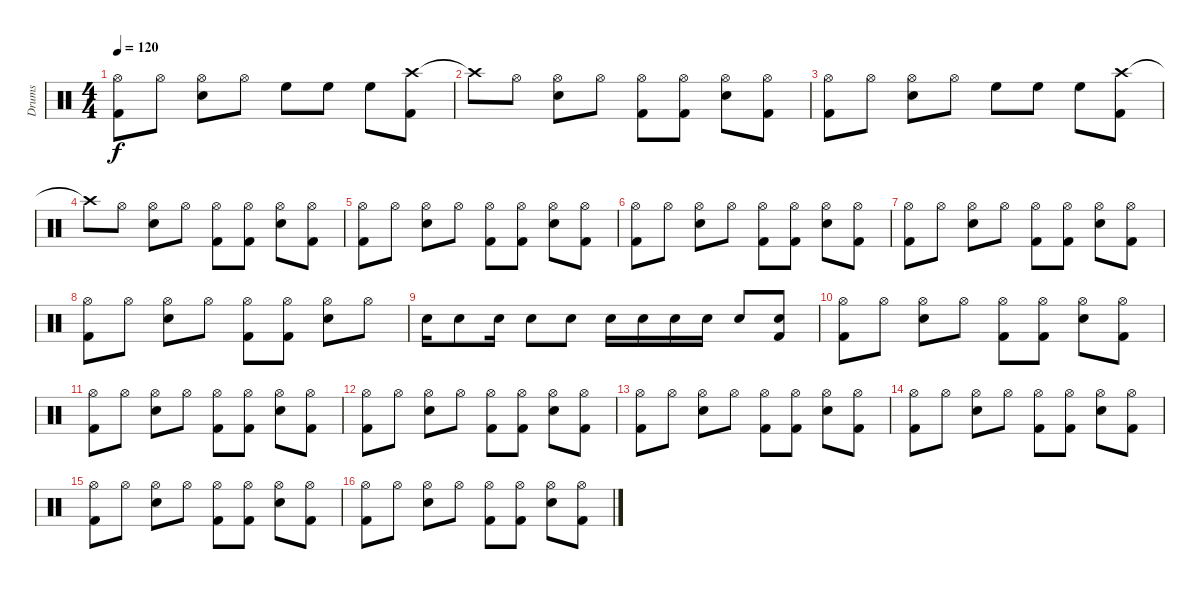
\track ("Drums" "Drums") {instrument percussion}
\staff {score}
\articulation defaults
\ts (4 4)
\tempo 120
\clef neutral
\ks c
("Hi-Hat (open)" "Kick (hit) 2").8{dy f} "Hi-Hat (open)".8 ("Hi-Hat (open)" "Snare (hit) 2").8 "Hi-Hat (open)".8 "High Floor Tom (hit)".8 "High Floor Tom (hit)".8 "High Floor Tom (hit)".8 ("Crash high (hit)" "Kick (hit) 2").8 |
"Crash high (hit)"{t}.8 "Hi-Hat (open)".8 ("Hi-Hat (open)" "Snare (hit) 2").8 "Hi-Hat (open)".8 ("Hi-Hat (open)" "Kick (hit) 2").8 ("Hi-Hat (open)" "Kick (hit) 2").8 ("Hi-Hat (open)" "Snare (hit) 2").8 ("Hi-Hat (open)" "Kick (hit) 2").8 |
("Hi-Hat (open)" "Kick (hit) 2").8 "Hi-Hat (open)".8 ("Hi-Hat (open)" "Snare (hit) 2").8 "Hi-Hat (open)".8 "High Floor Tom (hit)".8 "High Floor Tom (hit)".8 "High Floor Tom (hit)".8 ("Crash high (hit)" "Kick (hit) 2").8 |
"Crash high (hit)"{t}.8 "Hi-Hat (open)".8 ("Hi-Hat (open)" "Snare (hit) 2").8 "Hi-Hat (open)".8 ("Hi-Hat (open)" "Kick (hit) 2").8 ("Hi-Hat (open)" "Kick (hit) 2").8 ("Hi-Hat (open)" "Snare (hit) 2").8 ("Hi-Hat (open)" "Kick (hit) 2").8 |
("Hi-Hat (open)" "Kick (hit) 2").8 "Hi-Hat (open)".8 ("Hi-Hat (open)" "Snare (hit) 2").8 "Hi-Hat (open)".8 ("Hi-Hat (open)" "Kick (hit) 2").8 ("Hi-Hat (open)" "Kick (hit) 2").8 ("Hi-Hat (open)" "Snare (hit) 2").8 ("Hi-Hat (open)" "Kick (hit) 2").8 |
("Hi-Hat (open)" "Kick (hit) 2").8 "Hi-Hat (open)".8 ("Hi-Hat (open)" "Snare (hit) 2").8 "Hi-Hat (open)".8 ("Hi-Hat (open)" "Kick (hit) 2").8 ("Hi-Hat (open)" "Kick (hit) 2").8 ("Hi-Hat (open)" "Snare (hit) 2").8 ("Hi-Hat (open)" "Kick (hit) 2").8 |
("Hi-Hat (open)" "Kick (hit) 2").8 "Hi-Hat (open)".8 ("Hi-Hat (open)" "Snare (hit) 2").8 "Hi-Hat (open)".8 ("Hi-Hat (open)" "Kick (hit) 2").8 ("Hi-Hat (open)" "Kick (hit) 2").8 ("Hi-Hat (open)" "Snare (hit) 2").8 ("Hi-Hat (open)" "Kick (hit) 2").8 |
("Hi-Hat (open)" "Kick (hit) 2").8 "Hi-Hat (open)".8 ("Hi-Hat (open)" "Snare (hit) 2").8 "Hi-Hat (open)".8 ("Hi-Hat (open)" "Kick (hit) 2").8 ("Hi-Hat (open)" "Kick (hit) 2").8 ("Hi-Hat (open)" "Snare (hit) 2").8 "Hi-Hat (open)".8 |
"Snare (hit) 2".16 "Snare (hit) 2".8 "Snare (hit) 2".16 "Snare (hit) 2".8 "Snare (hit) 2".8 "Snare (hit) 2".16 "Snare (hit) 2".16 "Snare (hit) 2".16 "Snare (hit) 2".16 "Snare (hit) 2".8 ("Snare (hit) 2" "Kick (hit) 2").8 |
("Hi-Hat (open)" "Kick (hit) 2").8 "Hi-Hat (open)".8 ("Hi-Hat (open)" "Snare (hit) 2").8 "Hi-Hat (open)".8 ("Hi-Hat (open)" "Kick (hit) 2").8 ("Hi-Hat (open)" "Kick (hit) 2").8 ("Hi-Hat (open)" "Snare (hit) 2").8 ("Hi-Hat (open)" "Kick (hit) 2").8 |
("Hi-Hat (open)" "Kick (hit) 2").8 "Hi-Hat (open)".8 ("Hi-Hat (open)" "Snare (hit) 2").8 "Hi-Hat (open)".8 ("Hi-Hat (open)" "Kick (hit) 2").8 ("Hi-Hat (open)" "Kick (hit) 2").8 ("Hi-Hat (open)" "Snare (hit) 2").8 ("Hi-Hat (open)" "Kick (hit) 2").8 |
("Hi-Hat (open)" "Kick (hit) 2").8 "Hi-Hat (open)".8 ("Hi-Hat (open)" "Snare (hit) 2").8 "Hi-Hat (open)".8 ("Hi-Hat (open)" "Kick (hit) 2").8 ("Hi-Hat (open)" "Kick (hit) 2").8 ("Hi-Hat (open)" "Snare (hit) 2").8 ("Hi-Hat (open)" "Kick (hit) 2").8 |
("Hi-Hat (open)" "Kick (hit) 2").8 "Hi-Hat (open)".8 ("Hi-Hat (open)" "Snare (hit) 2").8 "Hi-Hat (open)".8 ("Hi-Hat (open)" "Kick (hit) 2").8 ("Hi-Hat (open)" "Kick (hit) 2").8 ("Hi-Hat (open)" "Snare (hit) 2").8 ("Hi-Hat (open)" "Kick (hit) 2").8 |
("Hi-Hat (open)" "Kick (hit) 2").8 "Hi-Hat (open)".8 ("Hi-Hat (open)" "Snare (hit) 2").8 "Hi-Hat (open)".8 ("Hi-Hat (open)" "Kick (hit) 2").8 ("Hi-Hat (open)" "Kick (hit) 2").8 ("Hi-Hat (open)" "Snare (hit) 2").8 ("Hi-Hat (open)" "Kick (hit) 2").8 |
("Hi-Hat (open)" "Kick (hit) 2").8 "Hi-Hat (open)".8 ("Hi-Hat (open)" "Snare (hit) 2").8 "Hi-Hat (open)".8 ("Hi-Hat (open)" "Kick (hit) 2").8 ("Hi-Hat (open)" "Kick (hit) 2").8 ("Hi-Hat (open)" "Snare (hit) 2").8 ("Hi-Hat (open)" "Kick (hit) 2").8 |
("Hi-Hat (open)" "Kick (hit) 2").8 "Hi-Hat (open)".8 ("Hi-Hat (open)" "Snare (hit) 2").8 "Hi-Hat (open)".8 ("Hi-Hat (open)" "Kick (hit) 2").8 ("Hi-Hat (open)" "Kick (hit) 2").8 ("Hi-Hat (open)" "Snare (hit) 2").8 ("Hi-Hat (open)" "Kick (hit) 2").8
